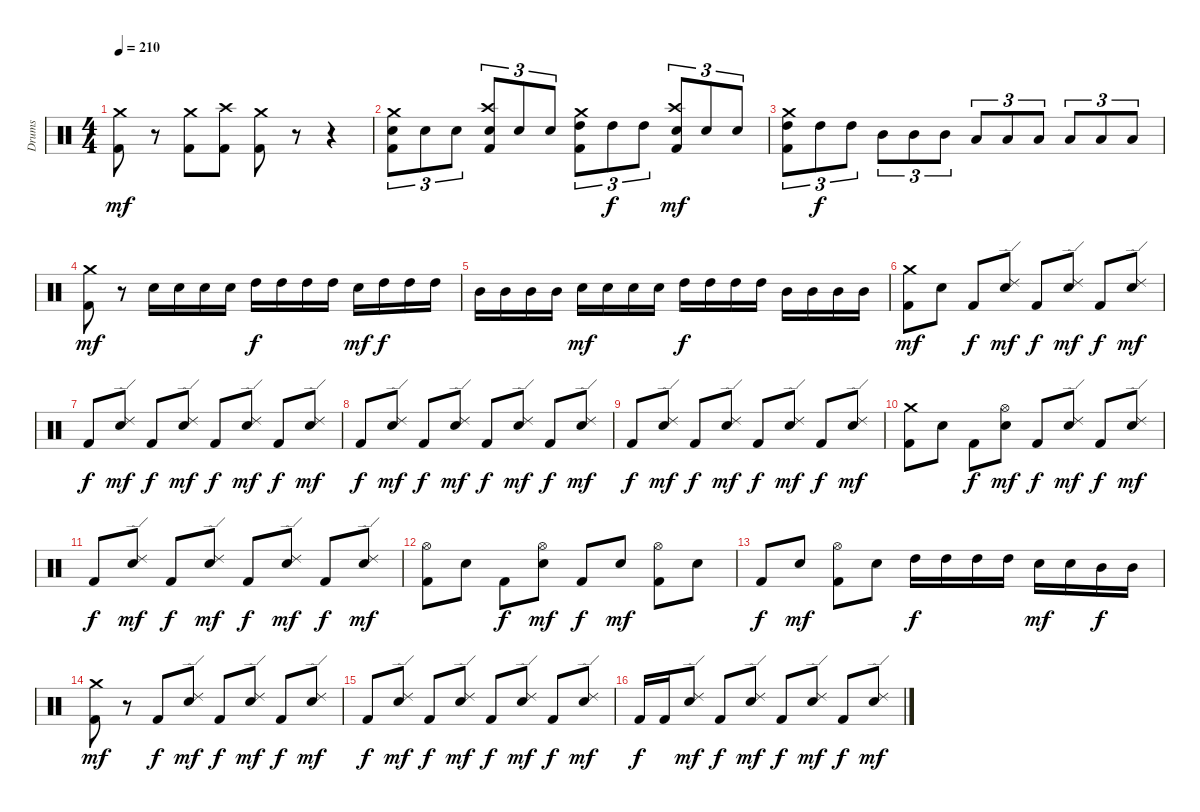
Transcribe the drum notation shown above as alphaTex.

\track ("Drums" "Drums") {instrument percussion}
\staff {score}
\articulation defaults
\ts (4 4)
\tempo 210
\clef neutral
\ks c
("Crash medium (hit)" "Kick (hit) 2").8{dy mf} r.8 ("Crash medium (hit)" "Kick (hit) 2").8 ("Crash high (hit)" "Kick (hit) 2").8 ("Crash medium (hit)" "Kick (hit) 2").8 r.8 r.4 |
("Crash medium (hit)" "Electric Snare (hit)" "Kick (hit) 2").8{tu (3 2)} "Electric Snare (hit)".8{tu (3 2)} "Electric Snare (hit)".8{tu (3 2)} ("Crash high (hit)" "Electric Snare (hit)" "Kick (hit) 2").8{tu (3 2)} "Electric Snare (hit)".8{tu (3 2)} "Electric Snare (hit)".8{tu (3 2)} ("Crash medium (hit)" "High Tom (hit)" "Kick (hit) 2").8{tu (3 2)} "High Tom (hit)".8{tu (3 2) dy f} "High Tom (hit)".8{tu (3 2)} ("Crash high (hit)" "Electric Snare (hit)" "Kick (hit) 2").8{tu (3 2) dy mf} "Electric Snare (hit)".8{tu (3 2)} "Electric Snare (hit)".8{tu (3 2)} |
("Crash medium (hit)" "High Tom (hit)" "Kick (hit) 2").8{tu (3 2)} "High Tom (hit)".8{tu (3 2) dy f} "High Tom (hit)".8{tu (3 2)} "Mid Tom (hit)".8{tu (3 2)} "Mid Tom (hit)".8{tu (3 2)} "Mid Tom (hit)".8{tu (3 2)} "Low Tom (hit)".8{tu (3 2)} "Low Tom (hit)".8{tu (3 2)} "Low Tom (hit)".8{tu (3 2)} "Low Tom (hit)".8{tu (3 2)} "Low Tom (hit)".8{tu (3 2)} "Low Tom (hit)".8{tu (3 2)} |
("Crash medium (hit)" "Kick (hit) 2").8{dy mf} r.8 "Electric Snare (hit)".16 "Electric Snare (hit)".16 "Electric Snare (hit)".16 "Electric Snare (hit)".16 "High Tom (hit)".16{dy f} "High Tom (hit)".16 "High Tom (hit)".16 "High Tom (hit)".16 "Electric Snare (hit)".16{dy mf} "High Tom (hit)".16{dy f} "High Tom (hit)".16 "High Tom (hit)".16 |
"Mid Tom (hit)".16 "Mid Tom (hit)".16 "Mid Tom (hit)".16 "Mid Tom (hit)".16 "Electric Snare (hit)".16{dy mf} "Electric Snare (hit)".16 "Electric Snare (hit)".16 "Electric Snare (hit)".16 "High Tom (hit)".16{dy f} "High Tom (hit)".16 "High Tom (hit)".16 "High Tom (hit)".16 "Mid Tom (hit)".16 "Mid Tom (hit)".16 "Mid Tom (hit)".16 "Mid Tom (hit)".16 |
("Crash medium (hit)" "Kick (hit) 2").8{dy mf} "Electric Snare (hit)".8 "Kick (hit) 2".8{dy f} ("Ride (edge) 2" "Electric Snare (hit)").8{dy mf} "Kick (hit) 2".8{dy f} ("Ride (edge) 2" "Electric Snare (hit)").8{dy mf} "Kick (hit) 2".8{dy f} ("Ride (edge) 2" "Electric Snare (hit)").8{dy mf} |
"Kick (hit) 2".8{dy f} ("Ride (edge) 2" "Electric Snare (hit)").8{dy mf} "Kick (hit) 2".8{dy f} ("Ride (edge) 2" "Electric Snare (hit)").8{dy mf} "Kick (hit) 2".8{dy f} ("Ride (edge) 2" "Electric Snare (hit)").8{dy mf} "Kick (hit) 2".8{dy f} ("Ride (edge) 2" "Electric Snare (hit)").8{dy mf} |
"Kick (hit) 2".8{dy f} ("Ride (edge) 2" "Electric Snare (hit)").8{dy mf} "Kick (hit) 2".8{dy f} ("Ride (edge) 2" "Electric Snare (hit)").8{dy mf} "Kick (hit) 2".8{dy f} ("Ride (edge) 2" "Electric Snare (hit)").8{dy mf} "Kick (hit) 2".8{dy f} ("Ride (edge) 2" "Electric Snare (hit)").8{dy mf} |
"Kick (hit) 2".8{dy f} ("Ride (edge) 2" "Electric Snare (hit)").8{dy mf} "Kick (hit) 2".8{dy f} ("Ride (edge) 2" "Electric Snare (hit)").8{dy mf} "Kick (hit) 2".8{dy f} ("Ride (edge) 2" "Electric Snare (hit)").8{dy mf} "Kick (hit) 2".8{dy f} ("Ride (edge) 2" "Electric Snare (hit)").8{dy mf} |
("Crash medium (hit)" "Kick (hit) 2").8 "Electric Snare (hit)".8 "Kick (hit) 2".8{dy f} ("Hi-Hat (open)" "Electric Snare (hit)").8{dy mf} "Kick (hit) 2".8{dy f} ("Ride (edge) 2" "Electric Snare (hit)").8{dy mf} "Kick (hit) 2".8{dy f} ("Ride (edge) 2" "Electric Snare (hit)").8{dy mf} |
"Kick (hit) 2".8{dy f} ("Ride (edge) 2" "Electric Snare (hit)").8{dy mf} "Kick (hit) 2".8{dy f} ("Ride (edge) 2" "Electric Snare (hit)").8{dy mf} "Kick (hit) 2".8{dy f} ("Ride (edge) 2" "Electric Snare (hit)").8{dy mf} "Kick (hit) 2".8{dy f} ("Ride (edge) 2" "Electric Snare (hit)").8{dy mf} |
("Hi-Hat (open)" "Kick (hit) 2").8 "Electric Snare (hit)".8 "Kick (hit) 2".8{dy f} ("Hi-Hat (open)" "Electric Snare (hit)").8{dy mf} "Kick (hit) 2".8{dy f} "Electric Snare (hit)".8{dy mf} ("Hi-Hat (open)" "Kick (hit) 2").8 "Electric Snare (hit)".8 |
"Kick (hit) 2".8{dy f} "Electric Snare (hit)".8{dy mf} ("Hi-Hat (open)" "Kick (hit) 2").8 "Electric Snare (hit)".8 "High Tom (hit)".16{dy f} "High Tom (hit)".16 "High Tom (hit)".16 "High Tom (hit)".16 "Electric Snare (hit)".16{dy mf} "Electric Snare (hit)".16 "Mid Tom (hit)".16{dy f} "Mid Tom (hit)".16 |
("Crash medium (hit)" "Kick (hit) 2").8{dy mf} r.8 "Kick (hit) 2".8{dy f} ("Ride (edge) 2" "Electric Snare (hit)").8{dy mf} "Kick (hit) 2".8{dy f} ("Ride (edge) 2" "Electric Snare (hit)").8{dy mf} "Kick (hit) 2".8{dy f} ("Ride (edge) 2" "Electric Snare (hit)").8{dy mf} |
"Kick (hit) 2".8{dy f} ("Ride (edge) 2" "Electric Snare (hit)").8{dy mf} "Kick (hit) 2".8{dy f} ("Ride (edge) 2" "Electric Snare (hit)").8{dy mf} "Kick (hit) 2".8{dy f} ("Ride (edge) 2" "Electric Snare (hit)").8{dy mf} "Kick (hit) 2".8{dy f} ("Ride (edge) 2" "Electric Snare (hit)").8{dy mf} |
"Kick (hit) 2".16{dy f} "Kick (hit) 2".16 ("Ride (edge) 2" "Electric Snare (hit)").8{dy mf} "Kick (hit) 2".8{dy f} ("Ride (edge) 2" "Electric Snare (hit)").8{dy mf} "Kick (hit) 2".8{dy f} ("Ride (edge) 2" "Electric Snare (hit)").8{dy mf} "Kick (hit) 2".8{dy f} ("Ride (edge) 2" "Electric Snare (hit)").8{dy mf}
